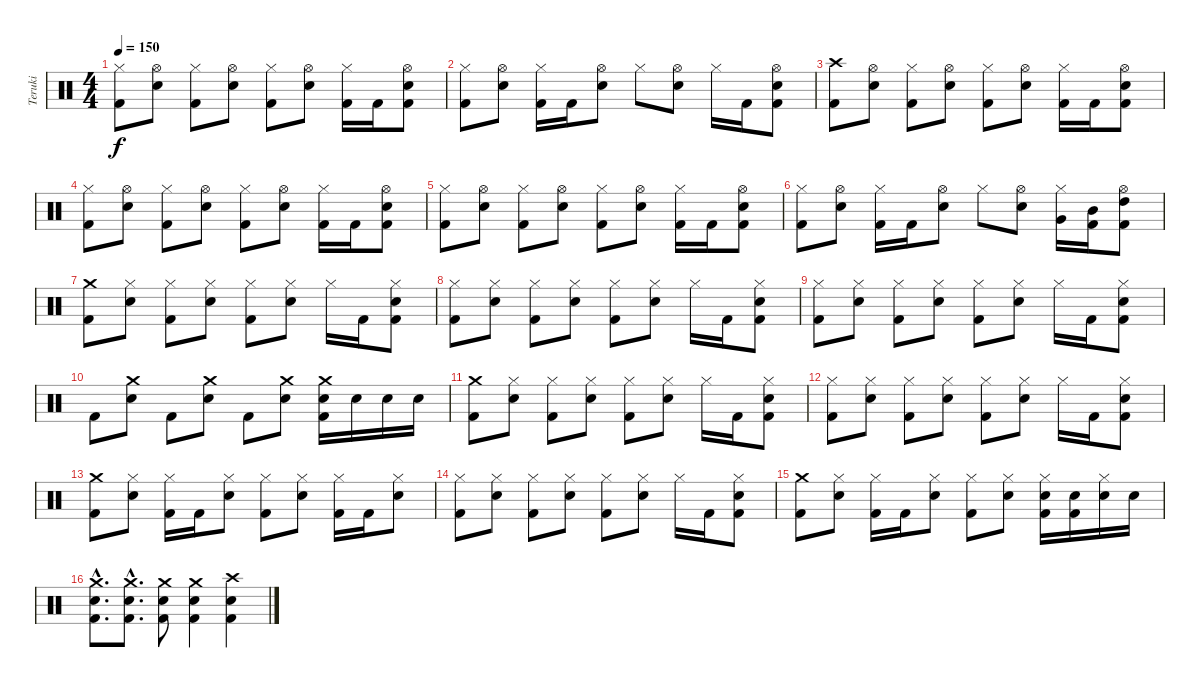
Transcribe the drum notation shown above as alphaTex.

\track ("Teruki" "Teruki") {instrument percussion}
\staff {score}
\articulation defaults
\ts (4 4)
\tempo 150
\clef neutral
\ks c
("Hi-Hat (closed)" "Kick (hit) 2").8{dy f} ("Hi-Hat (open)" "Electric Snare (hit)").8 ("Hi-Hat (closed)" "Kick (hit) 2").8 ("Hi-Hat (open)" "Electric Snare (hit)").8 ("Hi-Hat (closed)" "Kick (hit) 2").8 ("Hi-Hat (open)" "Electric Snare (hit)").8 ("Hi-Hat (closed)" "Kick (hit) 2").16 "Kick (hit) 2".16 ("Hi-Hat (open)" "Electric Snare (hit)" "Kick (hit) 2").8 |
("Hi-Hat (closed)" "Kick (hit) 2").8 ("Hi-Hat (open)" "Electric Snare (hit)").8 ("Hi-Hat (closed)" "Kick (hit) 2").16 "Kick (hit) 2".16 ("Hi-Hat (open)" "Electric Snare (hit)").8 "Hi-Hat (closed)".8 ("Hi-Hat (open)" "Electric Snare (hit)").8 "Hi-Hat (closed)".16 "Kick (hit) 2".16 ("Hi-Hat (open)" "Electric Snare (hit)" "Kick (hit) 2").8 |
("Crash high (hit)" "Kick (hit) 2").8 ("Hi-Hat (open)" "Electric Snare (hit)").8 ("Hi-Hat (closed)" "Kick (hit) 2").8 ("Hi-Hat (open)" "Electric Snare (hit)").8 ("Hi-Hat (closed)" "Kick (hit) 2").8 ("Hi-Hat (open)" "Electric Snare (hit)").8 ("Hi-Hat (closed)" "Kick (hit) 2").16 "Kick (hit) 2".16 ("Hi-Hat (open)" "Electric Snare (hit)" "Kick (hit) 2").8 |
("Hi-Hat (closed)" "Kick (hit) 2").8 ("Hi-Hat (open)" "Electric Snare (hit)").8 ("Hi-Hat (closed)" "Kick (hit) 2").8 ("Hi-Hat (open)" "Electric Snare (hit)").8 ("Hi-Hat (closed)" "Kick (hit) 2").8 ("Hi-Hat (open)" "Electric Snare (hit)").8 ("Hi-Hat (closed)" "Kick (hit) 2").16 "Kick (hit) 2".16 ("Hi-Hat (open)" "Electric Snare (hit)" "Kick (hit) 2").8 |
("Hi-Hat (closed)" "Kick (hit) 2").8 ("Hi-Hat (open)" "Electric Snare (hit)").8 ("Hi-Hat (closed)" "Kick (hit) 2").8 ("Hi-Hat (open)" "Electric Snare (hit)").8 ("Hi-Hat (closed)" "Kick (hit) 2").8 ("Hi-Hat (open)" "Electric Snare (hit)").8 ("Hi-Hat (closed)" "Kick (hit) 2").16 "Kick (hit) 2".16 ("Hi-Hat (open)" "Electric Snare (hit)" "Kick (hit) 2").8 |
("Hi-Hat (closed)" "Kick (hit) 2").8 ("Hi-Hat (open)" "Electric Snare (hit)").8 ("Hi-Hat (closed)" "Kick (hit) 2").16 "Kick (hit) 2".16 ("Hi-Hat (open)" "Electric Snare (hit)").8 "Hi-Hat (closed)".8 ("Hi-Hat (open)" "Electric Snare (hit)").8 ("Hi-Hat (closed)" "Very Low Tom (hit)").16 ("Mid Tom (hit)" "Kick (hit) 2").16 ("Hi-Hat (open)" "High Tom (hit)" "Kick (hit) 2").8 |
("Crash medium (hit)" "Kick (hit) 2").8 ("Hi-Hat (closed)" "Electric Snare (hit)").8 ("Hi-Hat (closed)" "Kick (hit) 2").8 ("Hi-Hat (closed)" "Electric Snare (hit)").8 ("Hi-Hat (closed)" "Kick (hit) 2").8 ("Hi-Hat (closed)" "Electric Snare (hit)").8 "Hi-Hat (closed)".16 "Kick (hit) 2".16 ("Hi-Hat (closed)" "Electric Snare (hit)" "Kick (hit) 2").8 |
("Hi-Hat (closed)" "Kick (hit) 2").8 ("Hi-Hat (closed)" "Electric Snare (hit)").8 ("Hi-Hat (closed)" "Kick (hit) 2").8 ("Hi-Hat (closed)" "Electric Snare (hit)").8 ("Hi-Hat (closed)" "Kick (hit) 2").8 ("Hi-Hat (closed)" "Electric Snare (hit)").8 "Hi-Hat (closed)".16 "Kick (hit) 2".16 ("Hi-Hat (closed)" "Electric Snare (hit)" "Kick (hit) 2").8 |
("Hi-Hat (closed)" "Kick (hit) 2").8 ("Hi-Hat (closed)" "Electric Snare (hit)").8 ("Hi-Hat (closed)" "Kick (hit) 2").8 ("Hi-Hat (closed)" "Electric Snare (hit)").8 ("Hi-Hat (closed)" "Kick (hit) 2").8 ("Hi-Hat (closed)" "Electric Snare (hit)").8 "Hi-Hat (closed)".16 "Kick (hit) 2".16 ("Hi-Hat (closed)" "Electric Snare (hit)" "Kick (hit) 2").8 |
"Kick (hit) 2".8 ("Crash medium (hit)" "Electric Snare (hit)").8 "Kick (hit) 2".8 ("Crash medium (hit)" "Electric Snare (hit)").8 "Kick (hit) 2".8 ("Crash medium (hit)" "Electric Snare (hit)").8 ("Crash medium (hit)" "Electric Snare (hit)" "Kick (hit) 2").16 "Electric Snare (hit)".16 "Electric Snare (hit)".16 "Electric Snare (hit)".16 |
("Crash medium (hit)" "Kick (hit) 2").8 ("Hi-Hat (closed)" "Electric Snare (hit)").8 ("Hi-Hat (closed)" "Kick (hit) 2").8 ("Hi-Hat (closed)" "Electric Snare (hit)").8 ("Hi-Hat (closed)" "Kick (hit) 2").8 ("Hi-Hat (closed)" "Electric Snare (hit)").8 "Hi-Hat (closed)".16 "Kick (hit) 2".16 ("Hi-Hat (closed)" "Electric Snare (hit)" "Kick (hit) 2").8 |
("Hi-Hat (closed)" "Kick (hit) 2").8 ("Hi-Hat (closed)" "Electric Snare (hit)").8 ("Hi-Hat (closed)" "Kick (hit) 2").8 ("Hi-Hat (closed)" "Electric Snare (hit)").8 ("Hi-Hat (closed)" "Kick (hit) 2").8 ("Hi-Hat (closed)" "Electric Snare (hit)").8 "Hi-Hat (closed)".16 "Kick (hit) 2".16 ("Hi-Hat (closed)" "Electric Snare (hit)" "Kick (hit) 2").8 |
("Crash medium (hit)" "Kick (hit) 2").8 ("Hi-Hat (closed)" "Electric Snare (hit)").8 ("Hi-Hat (closed)" "Kick (hit) 2").16 "Kick (hit) 2".16 ("Hi-Hat (closed)" "Electric Snare (hit)").8 ("Hi-Hat (closed)" "Kick (hit) 2").8 ("Hi-Hat (closed)" "Electric Snare (hit)").8 ("Hi-Hat (closed)" "Kick (hit) 2").16 "Kick (hit) 2".16 ("Hi-Hat (closed)" "Electric Snare (hit)").8 |
("Hi-Hat (closed)" "Kick (hit) 2").8 ("Hi-Hat (closed)" "Electric Snare (hit)").8 ("Hi-Hat (closed)" "Kick (hit) 2").8 ("Hi-Hat (closed)" "Electric Snare (hit)").8 ("Hi-Hat (closed)" "Kick (hit) 2").8 ("Hi-Hat (closed)" "Electric Snare (hit)").8 "Hi-Hat (closed)".16 "Kick (hit) 2".16 ("Hi-Hat (closed)" "Electric Snare (hit)" "Kick (hit) 2").8 |
("Crash medium (hit)" "Kick (hit) 2").8 ("Hi-Hat (closed)" "Electric Snare (hit)").8 ("Hi-Hat (closed)" "Kick (hit) 2").16 "Kick (hit) 2".16 ("Hi-Hat (closed)" "Electric Snare (hit)").8 ("Hi-Hat (closed)" "Kick (hit) 2").8 ("Hi-Hat (closed)" "Electric Snare (hit)").8 ("Hi-Hat (closed)" "Electric Snare (hit)" "Kick (hit) 2").16 ("Electric Snare (hit)" "Kick (hit) 2").16 ("Hi-Hat (closed)" "Electric Snare (hit)").16 "Electric Snare (hit)".16 |
("Crash medium (hit)"{hac} "Electric Snare (hit)"{hac} "Kick (hit) 2"{hac}).8{d} ("Crash medium (hit)"{hac} "Electric Snare (hit)"{hac} "Kick (hit) 2"{hac}).8{d} ("Crash medium (hit)" "Electric Snare (hit)" "Kick (hit) 2").8 ("Crash medium (hit)" "Electric Snare (hit)" "Kick (hit) 2").4 ("Crash high (hit)" "Electric Snare (hit)" "Kick (hit) 2").4
